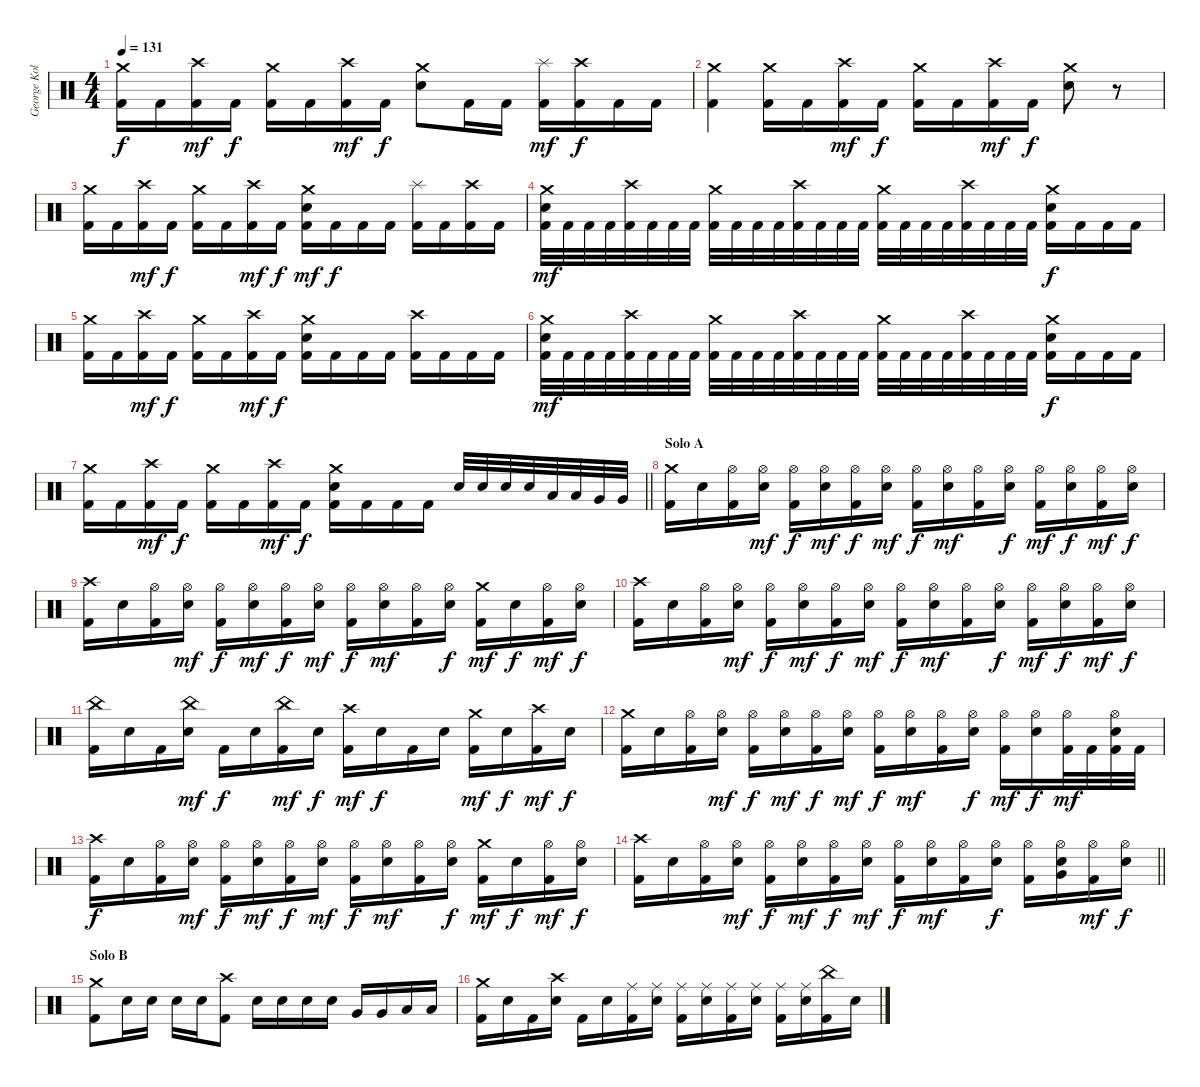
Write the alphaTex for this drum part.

\track ("George Kollias" "George Kol") {instrument percussion}
\staff {score}
\articulation defaults
\ts (4 4)
\tempo 131
\clef neutral
\ks c
("Crash medium (hit)" "Kick (hit) 2").16{dy f} "Kick (hit) 2".16 ("Crash high (hit)" "Kick (hit) 2").16{dy mf} "Kick (hit) 2".16{dy f} ("Crash medium (hit)" "Kick (hit) 2").16 "Kick (hit) 2".16 ("Crash high (hit)" "Kick (hit) 2").16{dy mf} "Kick (hit) 2".16{dy f} ("Crash medium (hit)" "Electric Snare (hit)").8 "Kick (hit) 2".16 "Kick (hit) 2".16 ("Splash (hit)" "Kick (hit) 2").16{dy mf} ("Crash high (hit)" "Kick (hit) 2").16{dy f} "Kick (hit) 2".16 "Kick (hit) 2".16 |
("Crash medium (hit)" "Kick (hit) 2").4 ("Crash medium (hit)" "Kick (hit) 2").16 "Kick (hit) 2".16 ("Crash high (hit)" "Kick (hit) 2").16{dy mf} "Kick (hit) 2".16{dy f} ("Crash medium (hit)" "Kick (hit) 2").16 "Kick (hit) 2".16 ("Crash high (hit)" "Kick (hit) 2").16{dy mf} "Kick (hit) 2".16{dy f} ("Crash medium (hit)" "Electric Snare (hit)").8 r.8 |
("Crash medium (hit)" "Kick (hit) 2").16 "Kick (hit) 2".16 ("Crash high (hit)" "Kick (hit) 2").16{dy mf} "Kick (hit) 2".16{dy f} ("Crash medium (hit)" "Kick (hit) 2").16 "Kick (hit) 2".16 ("Crash high (hit)" "Kick (hit) 2").16{dy mf} "Kick (hit) 2".16{dy f} ("Crash medium (hit)" "Electric Snare (hit)" "Kick (hit) 2").16{dy mf} "Kick (hit) 2".16{dy f} "Kick (hit) 2".16 "Kick (hit) 2".16 ("Splash (hit)" "Kick (hit) 2").16 "Kick (hit) 2".16 ("Crash high (hit)" "Kick (hit) 2").16 "Kick (hit) 2".16 |
("Crash medium (hit)" "Electric Snare (hit)" "Kick (hit) 2").32{dy mf} "Kick (hit) 2".32 "Kick (hit) 2".32 "Kick (hit) 2".32 ("Crash high (hit)" "Kick (hit) 2").32 "Kick (hit) 2".32 "Kick (hit) 2".32 "Kick (hit) 2".32 ("Crash medium (hit)" "Kick (hit) 2").32 "Kick (hit) 2".32 "Kick (hit) 2".32 "Kick (hit) 2".32 ("Crash high (hit)" "Kick (hit) 2").32 "Kick (hit) 2".32 "Kick (hit) 2".32 "Kick (hit) 2".32 ("Crash medium (hit)" "Kick (hit) 2").32 "Kick (hit) 2".32 "Kick (hit) 2".32 "Kick (hit) 2".32 ("Crash high (hit)" "Kick (hit) 2").32 "Kick (hit) 2".32 "Kick (hit) 2".32 "Kick (hit) 2".32 ("Crash medium (hit)" "Electric Snare (hit)" "Kick (hit) 2").16{dy f} "Kick (hit) 2".16 "Kick (hit) 2".16 "Kick (hit) 2".16 |
("Crash medium (hit)" "Kick (hit) 2").16 "Kick (hit) 2".16 ("Crash high (hit)" "Kick (hit) 2").16{dy mf} "Kick (hit) 2".16{dy f} ("Crash medium (hit)" "Kick (hit) 2").16 "Kick (hit) 2".16 ("Crash high (hit)" "Kick (hit) 2").16{dy mf} "Kick (hit) 2".16{dy f} ("Crash medium (hit)" "Electric Snare (hit)" "Kick (hit) 2").16 "Kick (hit) 2".16 "Kick (hit) 2".16 "Kick (hit) 2".16 ("Crash high (hit)" "Kick (hit) 2").16 "Kick (hit) 2".16 "Kick (hit) 2".16 "Kick (hit) 2".16 |
("Crash medium (hit)" "Electric Snare (hit)" "Kick (hit) 2").32{dy mf} "Kick (hit) 2".32 "Kick (hit) 2".32 "Kick (hit) 2".32 ("Crash high (hit)" "Kick (hit) 2").32 "Kick (hit) 2".32 "Kick (hit) 2".32 "Kick (hit) 2".32 ("Crash medium (hit)" "Kick (hit) 2").32 "Kick (hit) 2".32 "Kick (hit) 2".32 "Kick (hit) 2".32 ("Crash high (hit)" "Kick (hit) 2").32 "Kick (hit) 2".32 "Kick (hit) 2".32 "Kick (hit) 2".32 ("Crash medium (hit)" "Kick (hit) 2").32 "Kick (hit) 2".32 "Kick (hit) 2".32 "Kick (hit) 2".32 ("Crash high (hit)" "Kick (hit) 2").32 "Kick (hit) 2".32 "Kick (hit) 2".32 "Kick (hit) 2".32 ("Crash medium (hit)" "Electric Snare (hit)" "Kick (hit) 2").16{dy f} "Kick (hit) 2".16 "Kick (hit) 2".16 "Kick (hit) 2".16 |
\barLineRight lightlight
("Crash medium (hit)" "Kick (hit) 2").16 "Kick (hit) 2".16 ("Crash high (hit)" "Kick (hit) 2").16{dy mf} "Kick (hit) 2".16{dy f} ("Crash medium (hit)" "Kick (hit) 2").16 "Kick (hit) 2".16 ("Crash high (hit)" "Kick (hit) 2").16{dy mf} "Kick (hit) 2".16{dy f} ("Crash medium (hit)" "Electric Snare (hit)" "Kick (hit) 2").16 "Kick (hit) 2".16 "Kick (hit) 2".16 "Kick (hit) 2".16 "Electric Snare (hit)".32 "Electric Snare (hit)".32 "Electric Snare (hit)".32 "Electric Snare (hit)".32 "Low Tom (hit)".32 "Low Tom (hit)".32 "Very Low Tom (hit)".32 "Very Low Tom (hit)".32 |
\section ("" "Solo A")
("Crash medium (hit)" "Kick (hit) 2").16 "Electric Snare (hit)".16 ("Hi-Hat (open)" "Kick (hit) 2").16 ("Hi-Hat (open)" "Electric Snare (hit)").16{dy mf} ("Hi-Hat (open)" "Kick (hit) 2").16{dy f} ("Hi-Hat (open)" "Electric Snare (hit)").16{dy mf} ("Hi-Hat (open)" "Kick (hit) 2").16{dy f} ("Hi-Hat (open)" "Electric Snare (hit)").16{dy mf} ("Hi-Hat (open)" "Kick (hit) 2").16{dy f} ("Hi-Hat (open)" "Electric Snare (hit)").16{dy mf} ("Hi-Hat (open)" "Kick (hit) 2").16 ("Hi-Hat (open)" "Electric Snare (hit)").16{dy f} ("Hi-Hat (open)" "Kick (hit) 2").16{dy mf} ("Hi-Hat (open)" "Electric Snare (hit)").16{dy f} ("Hi-Hat (open)" "Kick (hit) 2").16{dy mf} ("Hi-Hat (open)" "Electric Snare (hit)").16{dy f} |
("Crash high (hit)" "Kick (hit) 2").16 "Electric Snare (hit)".16 ("Hi-Hat (open)" "Kick (hit) 2").16 ("Hi-Hat (open)" "Electric Snare (hit)").16{dy mf} ("Hi-Hat (open)" "Kick (hit) 2").16{dy f} ("Hi-Hat (open)" "Electric Snare (hit)").16{dy mf} ("Hi-Hat (open)" "Kick (hit) 2").16{dy f} ("Hi-Hat (open)" "Electric Snare (hit)").16{dy mf} ("Hi-Hat (open)" "Kick (hit) 2").16{dy f} ("Hi-Hat (open)" "Electric Snare (hit)").16{dy mf} ("Hi-Hat (open)" "Kick (hit) 2").16 ("Hi-Hat (open)" "Electric Snare (hit)").16{dy f} ("Crash medium (hit)" "Kick (hit) 2").16{dy mf} "Electric Snare (hit)".16{dy f} ("Hi-Hat (open)" "Kick (hit) 2").16{dy mf} ("Hi-Hat (open)" "Electric Snare (hit)").16{dy f} |
("Crash high (hit)" "Kick (hit) 2").16 "Electric Snare (hit)".16 ("Hi-Hat (open)" "Kick (hit) 2").16 ("Hi-Hat (open)" "Electric Snare (hit)").16{dy mf} ("Hi-Hat (open)" "Kick (hit) 2").16{dy f} ("Hi-Hat (open)" "Electric Snare (hit)").16{dy mf} ("Hi-Hat (open)" "Kick (hit) 2").16{dy f} ("Hi-Hat (open)" "Electric Snare (hit)").16{dy mf} ("Hi-Hat (open)" "Kick (hit) 2").16{dy f} ("Hi-Hat (open)" "Electric Snare (hit)").16{dy mf} ("Hi-Hat (open)" "Kick (hit) 2").16 ("Hi-Hat (open)" "Electric Snare (hit)").16{dy f} ("Hi-Hat (open)" "Kick (hit) 2").16{dy mf} ("Hi-Hat (open)" "Electric Snare (hit)").16{dy f} ("Hi-Hat (open)" "Kick (hit) 2").16{dy mf} ("Hi-Hat (open)" "Electric Snare (hit)").16{dy f} |
("China (hit)" "Kick (hit) 2").16 "Electric Snare (hit)".16 "Kick (hit) 2".16 ("China (hit)" "Electric Snare (hit)").16{dy mf} "Kick (hit) 2".16{dy f} "Electric Snare (hit)".16 ("China (hit)" "Kick (hit) 2").16{dy mf} "Electric Snare (hit)".16{dy f} ("Crash high (hit)" "Kick (hit) 2").16{dy mf} "Electric Snare (hit)".16{dy f} "Kick (hit) 2".16 "Electric Snare (hit)".16 ("Crash medium (hit)" "Kick (hit) 2").16{dy mf} "Electric Snare (hit)".16{dy f} ("Crash high (hit)" "Kick (hit) 2").16{dy mf} "Electric Snare (hit)".16{dy f} |
("Crash medium (hit)" "Kick (hit) 2").16 "Electric Snare (hit)".16 ("Hi-Hat (open)" "Kick (hit) 2").16 ("Hi-Hat (open)" "Electric Snare (hit)").16{dy mf} ("Hi-Hat (open)" "Kick (hit) 2").16{dy f} ("Hi-Hat (open)" "Electric Snare (hit)").16{dy mf} ("Hi-Hat (open)" "Kick (hit) 2").16{dy f} ("Hi-Hat (open)" "Electric Snare (hit)").16{dy mf} ("Hi-Hat (open)" "Kick (hit) 2").16{dy f} ("Hi-Hat (open)" "Electric Snare (hit)").16{dy mf} ("Hi-Hat (open)" "Kick (hit) 2").16 ("Hi-Hat (open)" "Electric Snare (hit)").16{dy f} ("Hi-Hat (open)" "Kick (hit) 2").16{dy mf} ("Hi-Hat (open)" "Electric Snare (hit)").16{dy f} ("Hi-Hat (open)" "Kick (hit) 2").32{dy mf} "Kick (hit) 2".32 ("Hi-Hat (open)" "Electric Snare (hit)" "Kick (hit) 2").32 "Kick (hit) 2".32 |
("Crash high (hit)" "Kick (hit) 2").16{dy f} "Electric Snare (hit)".16 ("Hi-Hat (open)" "Kick (hit) 2").16 ("Hi-Hat (open)" "Electric Snare (hit)").16{dy mf} ("Hi-Hat (open)" "Kick (hit) 2").16{dy f} ("Hi-Hat (open)" "Electric Snare (hit)").16{dy mf} ("Hi-Hat (open)" "Kick (hit) 2").16{dy f} ("Hi-Hat (open)" "Electric Snare (hit)").16{dy mf} ("Hi-Hat (open)" "Kick (hit) 2").16{dy f} ("Hi-Hat (open)" "Electric Snare (hit)").16{dy mf} ("Hi-Hat (open)" "Kick (hit) 2").16 ("Hi-Hat (open)" "Electric Snare (hit)").16{dy f} ("Crash medium (hit)" "Kick (hit) 2").16{dy mf} "Electric Snare (hit)".16{dy f} ("Hi-Hat (open)" "Kick (hit) 2").16{dy mf} ("Hi-Hat (open)" "Electric Snare (hit)").16{dy f} |
\barLineRight lightlight
("Crash high (hit)" "Kick (hit) 2").16 "Electric Snare (hit)".16 ("Hi-Hat (open)" "Kick (hit) 2").16 ("Hi-Hat (open)" "Electric Snare (hit)").16{dy mf} ("Hi-Hat (open)" "Kick (hit) 2").16{dy f} ("Hi-Hat (open)" "Electric Snare (hit)").16{dy mf} ("Hi-Hat (open)" "Kick (hit) 2").16{dy f} ("Hi-Hat (open)" "Electric Snare (hit)").16{dy mf} ("Hi-Hat (open)" "Kick (hit) 2").16{dy f} ("Hi-Hat (open)" "Electric Snare (hit)").16{dy mf} ("Hi-Hat (open)" "Kick (hit) 2").16 ("Hi-Hat (open)" "Electric Snare (hit)").16{dy f} ("Hi-Hat (open)" "Kick (hit) 2").16 ("Very Low Tom (hit)" "Hi-Hat (open)" "Electric Snare (hit)").16 ("Hi-Hat (open)" "Kick (hit) 2").16{dy mf} ("Hi-Hat (open)" "Electric Snare (hit)").16{dy f} |
\section ("" "Solo B")
("Crash medium (hit)" "Kick (hit) 2").8 "Electric Snare (hit)".16 "Electric Snare (hit)".16 "Electric Snare (hit)".16 "Electric Snare (hit)".16 ("Crash high (hit)" "Kick (hit) 2").8 "Electric Snare (hit)".16 "Electric Snare (hit)".16 "Electric Snare (hit)".16 "Electric Snare (hit)".16 "Very Low Tom (hit)".16 "Very Low Tom (hit)".16 "Low Floor Tom (hit)".16 "Low Floor Tom (hit)".16 |
("Crash medium (hit)" "Kick (hit) 2").16 "Electric Snare (hit)".16 "Kick (hit) 2".16 ("Crash high (hit)" "Electric Snare (hit)").16 "Kick (hit) 2".16 "Electric Snare (hit)".16 ("Ride (middle)" "Kick (hit) 2").16 ("Ride (middle)" "Electric Snare (hit)").16 ("Ride (middle)" "Kick (hit) 2").16 ("Ride (middle)" "Electric Snare (hit)").16 ("Ride (middle)" "Kick (hit) 2").16 ("Ride (middle)" "Electric Snare (hit)").16 ("Ride (middle)" "Kick (hit) 2").16 ("Ride (middle)" "Electric Snare (hit)").16 ("China (hit)" "Kick (hit) 2").16 "Electric Snare (hit)".16
